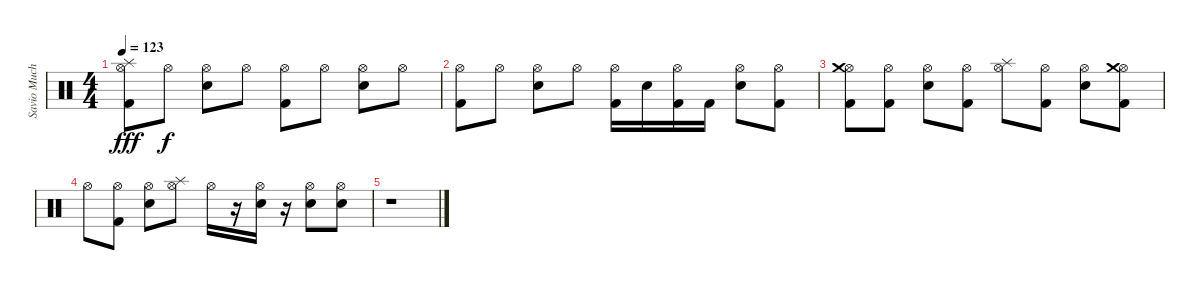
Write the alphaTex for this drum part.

\track ("Savio Muchacho (Drums)" "Savio Much") {instrument percussion}
\staff {score}
\articulation defaults
\ts (4 4)
\tempo 123
\clef neutral
\ks c
("Hi-Hat (open)" "Kick (hit) 2" "Splash (hit)").8{dy fff} "Hi-Hat (open)".8{dy f} ("Hi-Hat (open)" "Snare (hit) 2").8 "Hi-Hat (open)".8 ("Hi-Hat (open)" "Kick (hit) 2").8 "Hi-Hat (open)".8 ("Hi-Hat (open)" "Snare (hit) 2").8 "Hi-Hat (open)".8 |
("Hi-Hat (open)" "Kick (hit) 2").8 "Hi-Hat (open)".8 ("Hi-Hat (open)" "Snare (hit) 2").8 "Hi-Hat (open)".8 ("Hi-Hat (open)" "Kick (hit) 2").16 "Snare (hit) 2".16 ("Hi-Hat (open)" "Kick (hit) 2").16 "Kick (hit) 2".16 ("Hi-Hat (open)" "Snare (hit) 2").8 ("Hi-Hat (open)" "Kick (hit) 2").8 |
("Hi-Hat (open)" "Kick (hit) 2" "Crash medium (hit)").8 ("Hi-Hat (open)" "Kick (hit) 2").8 ("Hi-Hat (open)" "Snare (hit) 2").8 ("Hi-Hat (open)" "Kick (hit) 2").8 ("Hi-Hat (open)" "Splash (hit)").8 ("Hi-Hat (open)" "Kick (hit) 2").8 ("Hi-Hat (open)" "Snare (hit) 2").8 ("Hi-Hat (open)" "Kick (hit) 2" "Crash medium (hit)").8 |
"Hi-Hat (open)".8 ("Hi-Hat (open)" "Kick (hit) 2").8 ("Hi-Hat (open)" "Snare (hit) 2").8 ("Hi-Hat (open)" "Splash (hit)").8 "Hi-Hat (open)".16 r.16 ("Hi-Hat (open)" "Snare (hit) 2").16 r.16 ("Hi-Hat (open)" "Snare (hit) 2").8 ("Hi-Hat (open)" "Snare (hit) 2").8 |
r.1
